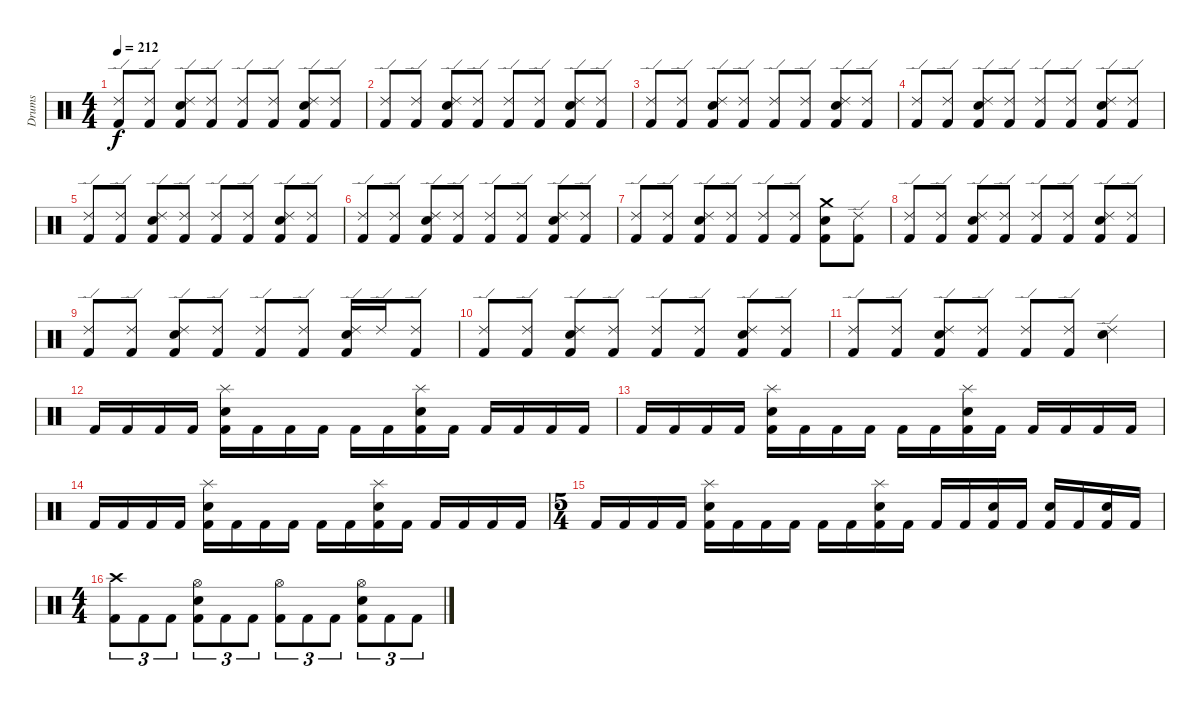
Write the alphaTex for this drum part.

\track ("Drums" "Drums") {instrument percussion}
\staff {score}
\articulation defaults
\ts (4 4)
\tempo 212
\clef neutral
\ks c
("Kick (hit) 2" "Ride (edge) 2").8{dy f} ("Kick (hit) 2" "Ride (edge) 2").8 ("Kick (hit) 2" "Snare (hit) 2" "Ride (edge) 2").8 ("Kick (hit) 2" "Ride (edge) 2").8 ("Kick (hit) 2" "Ride (edge) 2").8 ("Kick (hit) 2" "Ride (edge) 2").8 ("Kick (hit) 2" "Snare (hit) 2" "Ride (edge) 2").8 ("Kick (hit) 2" "Ride (edge) 2").8 |
("Kick (hit) 2" "Ride (edge) 2").8 ("Kick (hit) 2" "Ride (edge) 2").8 ("Kick (hit) 2" "Snare (hit) 2" "Ride (edge) 2").8 ("Kick (hit) 2" "Ride (edge) 2").8 ("Kick (hit) 2" "Ride (edge) 2").8 ("Kick (hit) 2" "Ride (edge) 2").8 ("Kick (hit) 2" "Snare (hit) 2" "Ride (edge) 2").8 ("Kick (hit) 2" "Ride (edge) 2").8 |
("Kick (hit) 2" "Ride (edge) 2").8 ("Kick (hit) 2" "Ride (edge) 2").8 ("Kick (hit) 2" "Snare (hit) 2" "Ride (edge) 2").8 ("Kick (hit) 2" "Ride (edge) 2").8 ("Kick (hit) 2" "Ride (edge) 2").8 ("Kick (hit) 2" "Ride (edge) 2").8 ("Kick (hit) 2" "Snare (hit) 2" "Ride (edge) 2").8 ("Kick (hit) 2" "Ride (edge) 2").8 |
("Kick (hit) 2" "Ride (edge) 2").8 ("Kick (hit) 2" "Ride (edge) 2").8 ("Kick (hit) 2" "Snare (hit) 2" "Ride (edge) 2").8 ("Kick (hit) 2" "Ride (edge) 2").8 ("Kick (hit) 2" "Ride (edge) 2").8 ("Kick (hit) 2" "Ride (edge) 2").8 ("Kick (hit) 2" "Snare (hit) 2" "Ride (edge) 2").8 ("Kick (hit) 2" "Ride (edge) 2").8 |
("Kick (hit) 2" "Ride (edge) 2").8 ("Kick (hit) 2" "Ride (edge) 2").8 ("Kick (hit) 2" "Snare (hit) 2" "Ride (edge) 2").8 ("Kick (hit) 2" "Ride (edge) 2").8 ("Kick (hit) 2" "Ride (edge) 2").8 ("Kick (hit) 2" "Ride (edge) 2").8 ("Kick (hit) 2" "Snare (hit) 2" "Ride (edge) 2").8 ("Kick (hit) 2" "Ride (edge) 2").8 |
("Kick (hit) 2" "Ride (edge) 2").8 ("Kick (hit) 2" "Ride (edge) 2").8 ("Kick (hit) 2" "Snare (hit) 2" "Ride (edge) 2").8 ("Kick (hit) 2" "Ride (edge) 2").8 ("Kick (hit) 2" "Ride (edge) 2").8 ("Kick (hit) 2" "Ride (edge) 2").8 ("Kick (hit) 2" "Snare (hit) 2" "Ride (edge) 2").8 ("Kick (hit) 2" "Ride (edge) 2").8 |
("Kick (hit) 2" "Ride (edge) 2").8 ("Kick (hit) 2" "Ride (edge) 2").8 ("Kick (hit) 2" "Snare (hit) 2" "Ride (edge) 2").8 ("Kick (hit) 2" "Ride (edge) 2").8 ("Kick (hit) 2" "Ride (edge) 2").8 ("Kick (hit) 2" "Ride (edge) 2").8 ("Kick (hit) 2" "Snare (hit) 2" "Crash medium (hit)").8 ("Kick (hit) 2" "Ride (edge) 2").8 |
("Kick (hit) 2" "Ride (edge) 2").8 ("Kick (hit) 2" "Ride (edge) 2").8 ("Kick (hit) 2" "Snare (hit) 2" "Ride (edge) 2").8 ("Kick (hit) 2" "Ride (edge) 2").8 ("Kick (hit) 2" "Ride (edge) 2").8 ("Kick (hit) 2" "Ride (edge) 2").8 ("Kick (hit) 2" "Snare (hit) 2" "Ride (edge) 2").8 ("Kick (hit) 2" "Ride (edge) 2").8 |
("Kick (hit) 2" "Ride (edge) 2").8 ("Kick (hit) 2" "Ride (edge) 2").8 ("Kick (hit) 2" "Snare (hit) 2" "Ride (edge) 2").8 ("Kick (hit) 2" "Ride (edge) 2").8 ("Kick (hit) 2" "Ride (edge) 2").8 ("Kick (hit) 2" "Ride (edge) 2").8 ("Kick (hit) 2" "Snare (hit) 2" "Ride (edge) 2").16 "Ride (edge) 2".16 ("Kick (hit) 2" "Ride (edge) 2").8 |
("Kick (hit) 2" "Ride (edge) 2").8 ("Kick (hit) 2" "Ride (edge) 2").8 ("Kick (hit) 2" "Snare (hit) 2" "Ride (edge) 2").8 ("Kick (hit) 2" "Ride (edge) 2").8 ("Kick (hit) 2" "Ride (edge) 2").8 ("Kick (hit) 2" "Ride (edge) 2").8 ("Kick (hit) 2" "Snare (hit) 2" "Ride (edge) 2").8 ("Kick (hit) 2" "Ride (edge) 2").8 |
("Kick (hit) 2" "Ride (edge) 2").8 ("Kick (hit) 2" "Ride (edge) 2").8 ("Kick (hit) 2" "Snare (hit) 2" "Ride (edge) 2").8 ("Kick (hit) 2" "Ride (edge) 2").8 ("Kick (hit) 2" "Ride (edge) 2").8 ("Kick (hit) 2" "Ride (edge) 2").8 ("Snare (hit) 2" "Ride (edge) 2").4 |
"Kick (hit) 2".16 "Kick (hit) 2".16 "Kick (hit) 2".16 "Kick (hit) 2".16 ("Kick (hit) 2" "Snare (hit) 2" "Splash (hit)").16 "Kick (hit) 2".16 "Kick (hit) 2".16 "Kick (hit) 2".16 "Kick (hit) 2".16 "Kick (hit) 2".16 ("Kick (hit) 2" "Snare (hit) 2" "Splash (hit)").16 "Kick (hit) 2".16 "Kick (hit) 2".16 "Kick (hit) 2".16 "Kick (hit) 2".16 "Kick (hit) 2".16 |
"Kick (hit) 2".16 "Kick (hit) 2".16 "Kick (hit) 2".16 "Kick (hit) 2".16 ("Kick (hit) 2" "Snare (hit) 2" "Splash (hit)").16 "Kick (hit) 2".16 "Kick (hit) 2".16 "Kick (hit) 2".16 "Kick (hit) 2".16 "Kick (hit) 2".16 ("Kick (hit) 2" "Snare (hit) 2" "Splash (hit)").16 "Kick (hit) 2".16 "Kick (hit) 2".16 "Kick (hit) 2".16 "Kick (hit) 2".16 "Kick (hit) 2".16 |
"Kick (hit) 2".16 "Kick (hit) 2".16 "Kick (hit) 2".16 "Kick (hit) 2".16 ("Kick (hit) 2" "Snare (hit) 2" "Splash (hit)").16 "Kick (hit) 2".16 "Kick (hit) 2".16 "Kick (hit) 2".16 "Kick (hit) 2".16 "Kick (hit) 2".16 ("Kick (hit) 2" "Snare (hit) 2" "Splash (hit)").16 "Kick (hit) 2".16 "Kick (hit) 2".16 "Kick (hit) 2".16 "Kick (hit) 2".16 "Kick (hit) 2".16 |
\ts (5 4)
"Kick (hit) 2".16 "Kick (hit) 2".16 "Kick (hit) 2".16 "Kick (hit) 2".16 ("Kick (hit) 2" "Snare (hit) 2" "Splash (hit)").16 "Kick (hit) 2".16 "Kick (hit) 2".16 "Kick (hit) 2".16 "Kick (hit) 2".16 "Kick (hit) 2".16 ("Kick (hit) 2" "Snare (hit) 2" "Splash (hit)").16 "Kick (hit) 2".16 "Kick (hit) 2".16 "Kick (hit) 2".16 ("Kick (hit) 2" "Snare (hit) 2").16 "Kick (hit) 2".16 ("Kick (hit) 2" "Snare (hit) 2").16 "Kick (hit) 2".16 ("Kick (hit) 2" "Snare (hit) 2").16 "Kick (hit) 2".16 |
\ts (4 4)
("Kick (hit) 2" "Crash high (hit)").8{tu (3 2)} "Kick (hit) 2".8{tu (3 2)} "Kick (hit) 2".8{tu (3 2)} ("Kick (hit) 2" "Snare (hit) 2" "Hi-Hat (open)").8{tu (3 2)} "Kick (hit) 2".8{tu (3 2)} "Kick (hit) 2".8{tu (3 2)} ("Kick (hit) 2" "Hi-Hat (open)").8{tu (3 2)} "Kick (hit) 2".8{tu (3 2)} "Kick (hit) 2".8{tu (3 2)} ("Kick (hit) 2" "Snare (hit) 2" "Hi-Hat (open)").8{tu (3 2)} "Kick (hit) 2".8{tu (3 2)} "Kick (hit) 2".8{tu (3 2)}
